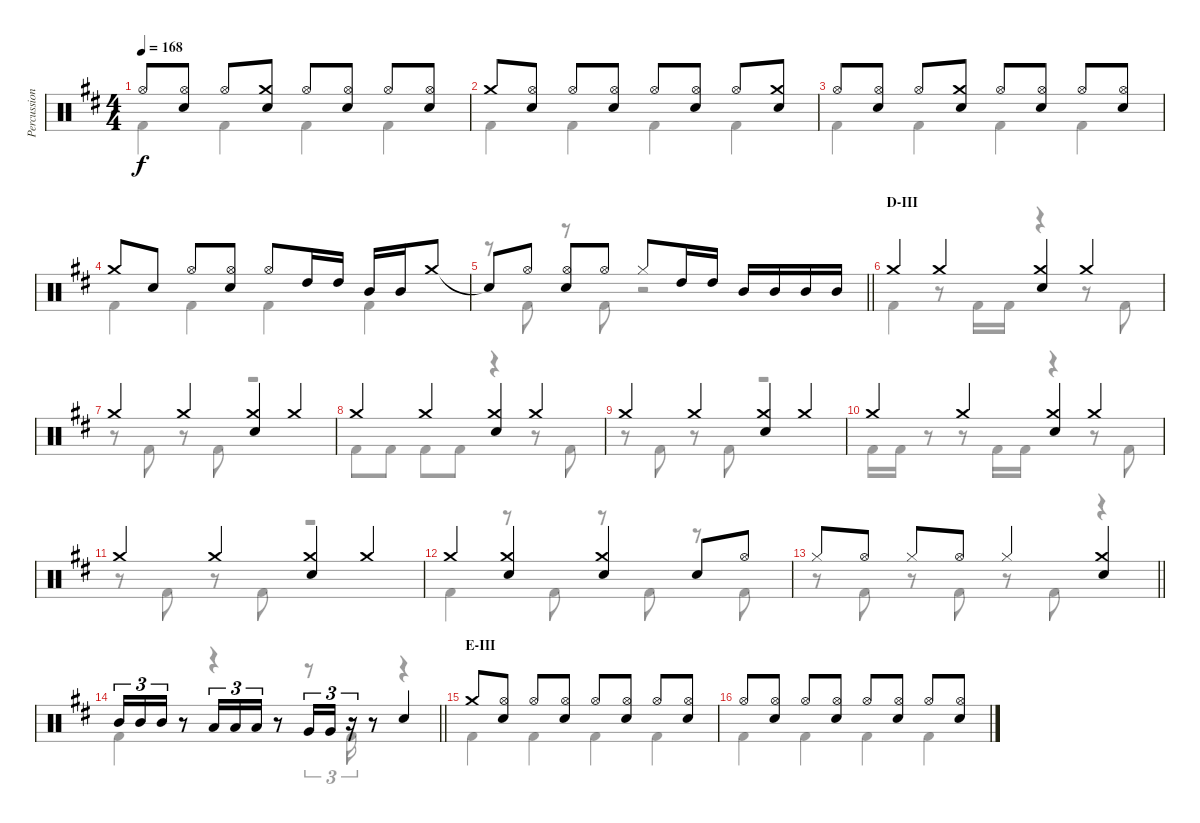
\track ("Percussion" "Percussion") {instrument percussion}
\staff {score}
\articulation defaults
\voice
\ts (4 4)
\tempo 168
\clef neutral
\ks d "Hi-Hat (open)".8{dy f}
("Hi-Hat (open)" "Snare (hit) 2").8 "Hi-Hat (open)".8 ("Crash medium (hit)" "Snare (hit) 2").8 "Hi-Hat (open)".8 ("Hi-Hat (open)" "Snare (hit) 2").8 "Hi-Hat (open)".8 ("Hi-Hat (open)" "Snare (hit) 2").8 |
"Crash medium (hit)".8 ("Hi-Hat (open)" "Snare (hit) 2").8 "Hi-Hat (open)".8 ("Hi-Hat (open)" "Snare (hit) 2").8 "Hi-Hat (open)".8 ("Hi-Hat (open)" "Snare (hit) 2").8 "Hi-Hat (open)".8 ("Crash medium (hit)" "Snare (hit) 2").8 |
"Hi-Hat (open)".8 ("Hi-Hat (open)" "Snare (hit) 2").8 "Hi-Hat (open)".8 ("Crash medium (hit)" "Snare (hit) 2").8 "Hi-Hat (open)".8 ("Hi-Hat (open)" "Snare (hit) 2").8 "Hi-Hat (open)".8 ("Hi-Hat (open)" "Snare (hit) 2").8 |
"Crash medium (hit)".8 "Snare (hit) 2".8 "Hi-Hat (open)".8 ("Hi-Hat (open)" "Snare (hit) 2").8 "Hi-Hat (open)".8 "High Tom (hit)".16 "High Tom (hit)".16 "Mid Tom (hit)".16 "Mid Tom (hit)".16 "Crash medium (hit)".8 |
\barLineRight lightlight "Snare (hit)"{t}.8 "Hi-Hat (open)".8
("Hi-Hat (open)" "Snare (hit) 2").8 "Hi-Hat (open)".8 "Hi-Hat (closed)".8 "High Tom (hit)".16 "High Tom (hit)".16 "Mid Tom (hit)".16 "Mid Tom (hit)".16 "Mid Tom (hit)".16 "Mid Tom (hit)".16 |
\section ("" "D-III")
"Crash medium (hit)".4 "Crash medium (hit)".4 ("Crash medium (hit)" "Snare (hit) 2").4 "Crash medium (hit)".4 |
"Crash medium (hit)".4 "Crash medium (hit)".4 ("Crash medium (hit)" "Snare (hit) 2").4 "Crash medium (hit)".4 |
"Crash medium (hit)".4 "Crash medium (hit)".4 ("Crash medium (hit)" "Snare (hit) 2").4 "Crash medium (hit)".4 |
"Crash medium (hit)".4 "Crash medium (hit)".4 ("Crash medium (hit)" "Snare (hit) 2").4 "Crash medium (hit)".4 |
"Crash medium (hit)".4 "Crash medium (hit)".4 ("Crash medium (hit)" "Snare (hit) 2").4 "Crash medium (hit)".4 |
"Crash medium (hit)".4 "Crash medium (hit)".4 ("Crash medium (hit)" "Snare (hit) 2").4 "Crash medium (hit)".4 |
"Crash medium (hit)".4 ("Crash medium (hit)" "Snare (hit) 2").4 ("Crash medium (hit)" "Snare (hit) 2").4 "Snare (hit) 2".8 "Hi-Hat (open)".8 |
\barLineRight lightlight "Hi-Hat (closed)".8 "Hi-Hat (open)".8 "Hi-Hat (closed)".8 "Hi-Hat (open)".8 "Hi-Hat (closed)".4
("Crash medium (hit)" "Snare (hit) 2").4 |
\barLineRight lightlight "Mid Tom (hit)".16{tu (3 2)} "Mid Tom (hit)".16{tu (3 2)} "Mid Tom (hit)".16{tu (3 2)}
r.8 "Low Tom (hit)".16{tu (3 2)} "Low Tom (hit)".16{tu (3 2)} "Low Tom (hit)".16{tu (3 2)} r.8 "Very Low Tom (hit)".16{tu (3 2)} "Very Low Tom (hit)".16{tu (3 2)} r.16{tu (3 2)} r.8 "Snare (hit) 2".4 |
\section ("" "E-III")
"Crash medium (hit)".8 ("Hi-Hat (open)" "Snare (hit) 2").8 "Hi-Hat (open)".8 ("Hi-Hat (open)" "Snare (hit) 2").8 "Hi-Hat (open)".8 ("Hi-Hat (open)" "Snare (hit) 2").8 "Hi-Hat (open)".8 ("Hi-Hat (open)" "Snare (hit) 2").8 |
"Hi-Hat (open)".8 ("Hi-Hat (open)" "Snare (hit) 2").8 "Hi-Hat (open)".8 ("Hi-Hat (open)" "Snare (hit) 2").8 "Hi-Hat (open)".8 ("Hi-Hat (open)" "Snare (hit) 2").8 "Hi-Hat (open)".8 ("Hi-Hat (open)" "Snare (hit) 2").8
\voice
\clef neutral
\ottava regular
\simile none
\ks d "Kick (hit) 2".4{dy f} "Kick (hit) 2".4 "Kick (hit) 2".4 "Kick (hit) 2".4
|
"Kick (hit) 2".4 "Kick (hit) 2".4 "Kick (hit) 2".4 "Kick (hit) 2".4 |
"Kick (hit) 2".4 "Kick (hit) 2".4 "Kick (hit) 2".4 "Kick (hit) 2".4 |
"Kick (hit) 2".4 "Kick (hit) 2".4 "Kick (hit) 2".4 "Kick (hit) 2".4 |
\barLineRight lightlight
r.8 "Kick (hit) 2".8 r.8 "Kick (hit) 2".8 r.2 |
"Kick (hit) 2".4 r.8 "Kick (hit) 2".16 "Kick (hit) 2".16 r.4 r.8 "Kick (hit) 2".8 |
r.8 "Kick (hit) 2".8 r.8 "Kick (hit) 2".8 r.2 |
"Kick (hit) 2".8 "Kick (hit) 2".8 "Kick (hit) 2".8 "Kick (hit) 2".8 r.4 r.8 "Kick (hit) 2".8 |
r.8 "Kick (hit) 2".8 r.8 "Kick (hit) 2".8 r.2 |
"Kick (hit) 2".16 "Kick (hit) 2".16 r.8 r.8 "Kick (hit) 2".16 "Kick (hit) 2".16 r.4 r.8 "Kick (hit) 2".8 |
r.8 "Kick (hit) 2".8 r.8 "Kick (hit) 2".8 r.2 |
"Kick (hit) 2".4 r.8 "Kick (hit) 2".8 r.8 "Kick (hit) 2".8 r.8 "Kick (hit) 2".8 |
\barLineRight lightlight
r.8 "Kick (hit) 2".8 r.8 "Kick (hit) 2".8 r.8 "Kick (hit) 2".8 r.4 |
\barLineRight lightlight "Kick (hit) 2".4
r.4 r.8{tu (3 2)} "Kick (hit) 2".16{tu (3 2)} r.8 r.4 |
"Kick (hit) 2".4 "Kick (hit) 2".4 "Kick (hit) 2".4 "Kick (hit) 2".4 |
"Kick (hit) 2".4 "Kick (hit) 2".4 "Kick (hit) 2".4 "Kick (hit) 2".4
